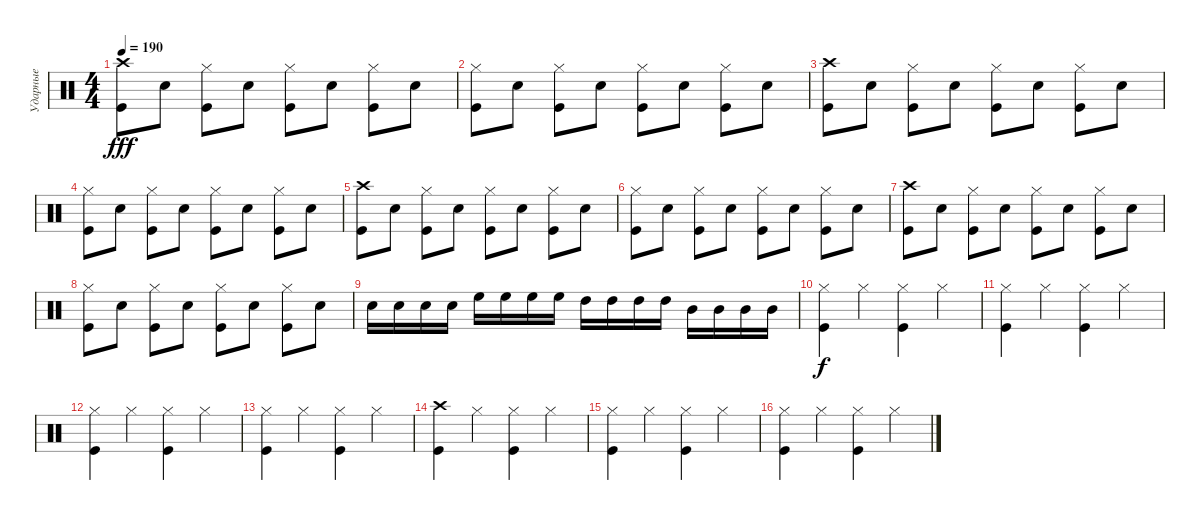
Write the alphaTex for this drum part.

\track ("Ударные" "Ударные") {instrument percussion}
\staff {score}
\articulation defaults
\ts (4 4)
\tempo 190
\clef neutral
\ks c
("Kick (hit)" "Crash high (hit)").8{dy fff} "Snare (hit) 2".8 ("Kick (hit)" "Hi-Hat (closed)").8 "Snare (hit) 2".8 ("Kick (hit)" "Hi-Hat (closed)").8 "Snare (hit) 2".8 ("Kick (hit)" "Hi-Hat (closed)").8 "Snare (hit) 2".8 |
("Kick (hit)" "Hi-Hat (closed)").8 "Snare (hit) 2".8 ("Kick (hit)" "Hi-Hat (closed)").8 "Snare (hit) 2".8 ("Kick (hit)" "Hi-Hat (closed)").8 "Snare (hit) 2".8 ("Kick (hit)" "Hi-Hat (closed)").8 "Snare (hit) 2".8 |
("Kick (hit)" "Crash high (hit)").8 "Snare (hit) 2".8 ("Kick (hit)" "Hi-Hat (closed)").8 "Snare (hit) 2".8 ("Kick (hit)" "Hi-Hat (closed)").8 "Snare (hit) 2".8 ("Kick (hit)" "Hi-Hat (closed)").8 "Snare (hit) 2".8 |
("Kick (hit)" "Hi-Hat (closed)").8 "Snare (hit) 2".8 ("Kick (hit)" "Hi-Hat (closed)").8 "Snare (hit) 2".8 ("Kick (hit)" "Hi-Hat (closed)").8 "Snare (hit) 2".8 ("Kick (hit)" "Hi-Hat (closed)").8 "Snare (hit) 2".8 |
("Kick (hit)" "Crash high (hit)").8 "Snare (hit) 2".8 ("Kick (hit)" "Hi-Hat (closed)").8 "Snare (hit) 2".8 ("Kick (hit)" "Hi-Hat (closed)").8 "Snare (hit) 2".8 ("Kick (hit)" "Hi-Hat (closed)").8 "Snare (hit) 2".8 |
("Kick (hit)" "Hi-Hat (closed)").8 "Snare (hit) 2".8 ("Kick (hit)" "Hi-Hat (closed)").8 "Snare (hit) 2".8 ("Kick (hit)" "Hi-Hat (closed)").8 "Snare (hit) 2".8 ("Kick (hit)" "Hi-Hat (closed)").8 "Snare (hit) 2".8 |
("Kick (hit)" "Crash high (hit)").8 "Snare (hit) 2".8 ("Kick (hit)" "Hi-Hat (closed)").8 "Snare (hit) 2".8 ("Kick (hit)" "Hi-Hat (closed)").8 "Snare (hit) 2".8 ("Kick (hit)" "Hi-Hat (closed)").8 "Snare (hit) 2".8 |
("Kick (hit)" "Hi-Hat (closed)").8 "Snare (hit) 2".8 ("Kick (hit)" "Hi-Hat (closed)").8 "Snare (hit) 2".8 ("Kick (hit)" "Hi-Hat (closed)").8 "Snare (hit) 2".8 ("Kick (hit)" "Hi-Hat (closed)").8 "Snare (hit) 2".8 |
"Snare (hit) 2".16 "Snare (hit) 2".16 "Snare (hit) 2".16 "Snare (hit) 2".16 "High Floor Tom (hit)".16 "High Floor Tom (hit)".16 "High Floor Tom (hit)".16 "High Floor Tom (hit)".16 "High Tom (hit)".16 "High Tom (hit)".16 "High Tom (hit)".16 "High Tom (hit)".16 "Mid Tom (hit)".16 "Mid Tom (hit)".16 "Mid Tom (hit)".16 "Mid Tom (hit)".16 |
("Hi-Hat (closed)" "Kick (hit)").4{dy f} "Hi-Hat (closed)".4 ("Hi-Hat (closed)" "Kick (hit)").4 "Hi-Hat (closed)".4 |
("Hi-Hat (closed)" "Kick (hit)").4 "Hi-Hat (closed)".4 ("Hi-Hat (closed)" "Kick (hit)").4 "Hi-Hat (closed)".4 |
("Hi-Hat (closed)" "Kick (hit)").4 "Hi-Hat (closed)".4 ("Hi-Hat (closed)" "Kick (hit)").4 "Hi-Hat (closed)".4 |
("Hi-Hat (closed)" "Kick (hit)").4 "Hi-Hat (closed)".4 ("Hi-Hat (closed)" "Kick (hit)").4 "Hi-Hat (closed)".4 |
("Crash high (hit)" "Kick (hit)").4 "Hi-Hat (closed)".4 ("Hi-Hat (closed)" "Kick (hit)").4 "Hi-Hat (closed)".4 |
("Hi-Hat (closed)" "Kick (hit)").4 "Hi-Hat (closed)".4 ("Hi-Hat (closed)" "Kick (hit)").4 "Hi-Hat (closed)".4 |
("Hi-Hat (closed)" "Kick (hit)").4 "Hi-Hat (closed)".4 ("Hi-Hat (closed)" "Kick (hit)").4 "Hi-Hat (closed)".4
